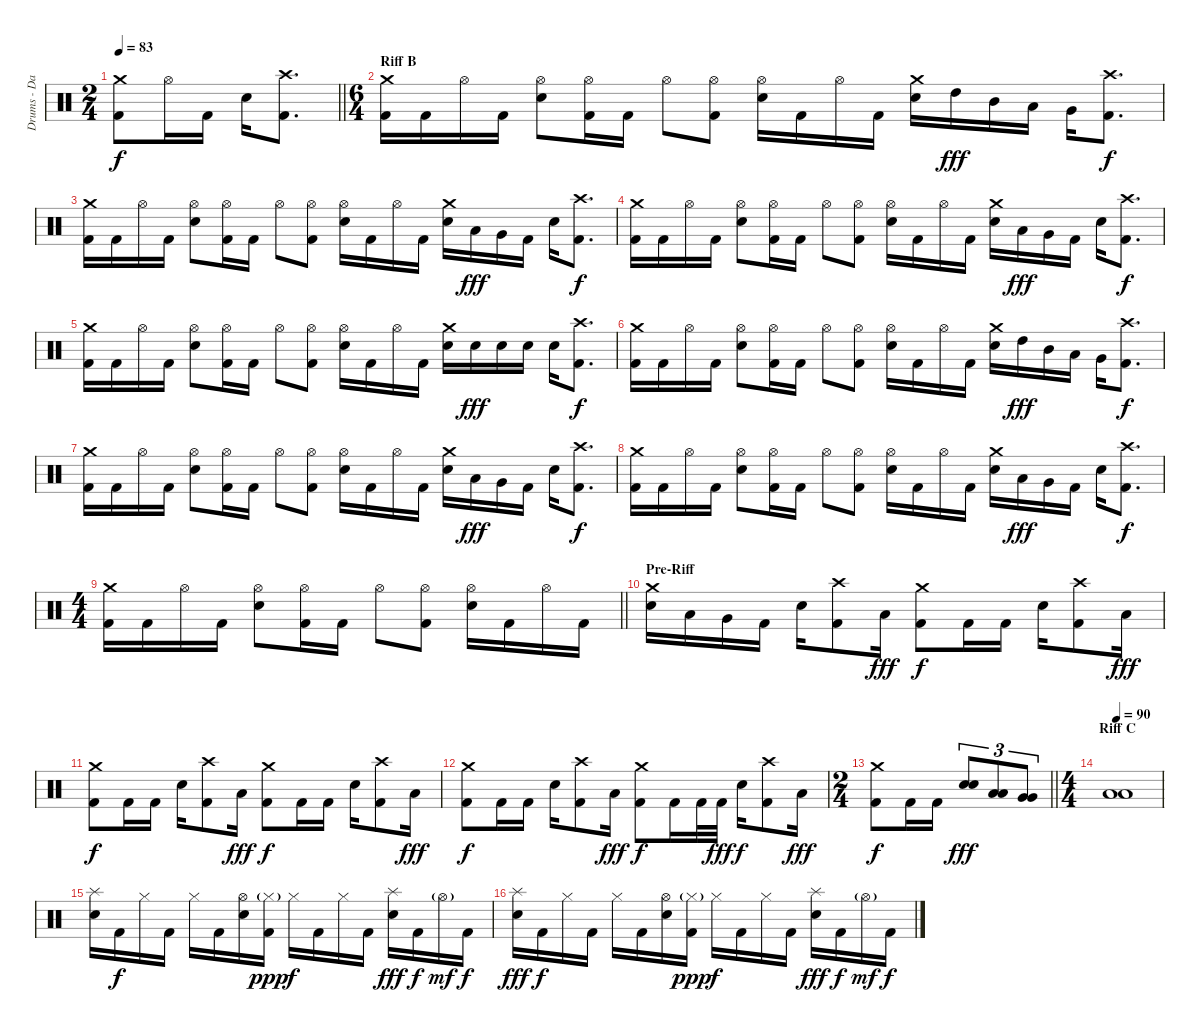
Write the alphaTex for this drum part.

\track ("Drums - Danny Carey" "Drums - Da") {instrument percussion}
\staff {score}
\articulation defaults
\ts (2 4)
\tempo 83
\clef neutral
\barLineRight lightlight
\ks c
("Crash medium (hit)" "Kick (hit) 2").8{dy f} "Hi-Hat (open)".16 "Kick (hit) 2".16 "Electric Snare (hit)".16 ("Crash high (hit)" "Kick (hit) 2").8{d} |
\ts (6 4)
\section ("" "Riff B")
("Crash medium (hit)" "Kick (hit) 2").16 "Kick (hit) 2".16 "Hi-Hat (open)".16 "Kick (hit) 2".16 ("Electric Snare (hit)" "Hi-Hat (open)").8 ("Kick (hit) 2" "Hi-Hat (open)").16 "Kick (hit) 2".16 "Hi-Hat (open)".8 ("Kick (hit) 2" "Hi-Hat (open)").8 ("Electric Snare (hit)" "Hi-Hat (open)").16 "Kick (hit) 2".16 "Hi-Hat (open)".16 "Kick (hit) 2".16 ("Crash medium (hit)" "Electric Snare (hit)").16 "High Tom (hit)".16{dy fff} "Mid Tom (hit)".16 "Low Tom (hit)".16 "Very Low Tom (hit)".16 ("Crash high (hit)" "Kick (hit) 2").8{d dy f} |
("Crash medium (hit)" "Kick (hit) 2").16 "Kick (hit) 2".16 "Hi-Hat (open)".16 "Kick (hit) 2".16 ("Electric Snare (hit)" "Hi-Hat (open)").8 ("Kick (hit) 2" "Hi-Hat (open)").16 "Kick (hit) 2".16 "Hi-Hat (open)".8 ("Kick (hit) 2" "Hi-Hat (open)").8 ("Electric Snare (hit)" "Hi-Hat (open)").16 "Kick (hit) 2".16 "Hi-Hat (open)".16 "Kick (hit) 2".16 ("Crash medium (hit)" "Electric Snare (hit)").16 "Low Tom (hit)".16{dy fff} "Very Low Tom (hit)".16 "Kick (hit) 2".16 "Electric Snare (hit)".16 ("Crash high (hit)" "Kick (hit) 2").8{d dy f} |
("Crash medium (hit)" "Kick (hit) 2").16 "Kick (hit) 2".16 "Hi-Hat (open)".16 "Kick (hit) 2".16 ("Electric Snare (hit)" "Hi-Hat (open)").8 ("Kick (hit) 2" "Hi-Hat (open)").16 "Kick (hit) 2".16 "Hi-Hat (open)".8 ("Kick (hit) 2" "Hi-Hat (open)").8 ("Electric Snare (hit)" "Hi-Hat (open)").16 "Kick (hit) 2".16 "Hi-Hat (open)".16 "Kick (hit) 2".16 ("Crash medium (hit)" "Electric Snare (hit)").16 "Low Tom (hit)".16{dy fff} "Very Low Tom (hit)".16 "Kick (hit) 2".16 "Electric Snare (hit)".16 ("Crash high (hit)" "Kick (hit) 2").8{d dy f} |
("Crash medium (hit)" "Kick (hit) 2").16 "Kick (hit) 2".16 "Hi-Hat (open)".16 "Kick (hit) 2".16 ("Electric Snare (hit)" "Hi-Hat (open)").8 ("Kick (hit) 2" "Hi-Hat (open)").16 "Kick (hit) 2".16 "Hi-Hat (open)".8 ("Kick (hit) 2" "Hi-Hat (open)").8 ("Electric Snare (hit)" "Hi-Hat (open)").16 "Kick (hit) 2".16 "Hi-Hat (open)".16 "Kick (hit) 2".16 ("Crash medium (hit)" "Electric Snare (hit)").16 "Electric Snare (hit)".16{dy fff} "Electric Snare (hit)".16 "Electric Snare (hit)".16 "Electric Snare (hit)".16 ("Crash high (hit)" "Kick (hit) 2").8{d dy f} |
("Crash medium (hit)" "Kick (hit) 2").16 "Kick (hit) 2".16 "Hi-Hat (open)".16 "Kick (hit) 2".16 ("Electric Snare (hit)" "Hi-Hat (open)").8 ("Kick (hit) 2" "Hi-Hat (open)").16 "Kick (hit) 2".16 "Hi-Hat (open)".8 ("Kick (hit) 2" "Hi-Hat (open)").8 ("Electric Snare (hit)" "Hi-Hat (open)").16 "Kick (hit) 2".16 "Hi-Hat (open)".16 "Kick (hit) 2".16 ("Crash medium (hit)" "Electric Snare (hit)").16 "High Tom (hit)".16{dy fff} "Mid Tom (hit)".16 "Low Tom (hit)".16 "Very Low Tom (hit)".16 ("Crash high (hit)" "Kick (hit) 2").8{d dy f} |
("Crash medium (hit)" "Kick (hit) 2").16 "Kick (hit) 2".16 "Hi-Hat (open)".16 "Kick (hit) 2".16 ("Electric Snare (hit)" "Hi-Hat (open)").8 ("Kick (hit) 2" "Hi-Hat (open)").16 "Kick (hit) 2".16 "Hi-Hat (open)".8 ("Kick (hit) 2" "Hi-Hat (open)").8 ("Electric Snare (hit)" "Hi-Hat (open)").16 "Kick (hit) 2".16 "Hi-Hat (open)".16 "Kick (hit) 2".16 ("Crash medium (hit)" "Electric Snare (hit)").16 "Low Tom (hit)".16{dy fff} "Very Low Tom (hit)".16 "Kick (hit) 2".16 "Electric Snare (hit)".16 ("Crash high (hit)" "Kick (hit) 2").8{d dy f} |
("Crash medium (hit)" "Kick (hit) 2").16 "Kick (hit) 2".16 "Hi-Hat (open)".16 "Kick (hit) 2".16 ("Electric Snare (hit)" "Hi-Hat (open)").8 ("Kick (hit) 2" "Hi-Hat (open)").16 "Kick (hit) 2".16 "Hi-Hat (open)".8 ("Kick (hit) 2" "Hi-Hat (open)").8 ("Electric Snare (hit)" "Hi-Hat (open)").16 "Kick (hit) 2".16 "Hi-Hat (open)".16 "Kick (hit) 2".16 ("Crash medium (hit)" "Electric Snare (hit)").16 "Low Tom (hit)".16{dy fff} "Very Low Tom (hit)".16 "Kick (hit) 2".16 "Electric Snare (hit)".16 ("Crash high (hit)" "Kick (hit) 2").8{d dy f} |
\ts (4 4)
\barLineRight lightlight
("Crash medium (hit)" "Kick (hit) 2").16 "Kick (hit) 2".16 "Hi-Hat (open)".16 "Kick (hit) 2".16 ("Electric Snare (hit)" "Hi-Hat (open)").8 ("Kick (hit) 2" "Hi-Hat (open)").16 "Kick (hit) 2".16 "Hi-Hat (open)".8 ("Kick (hit) 2" "Hi-Hat (open)").8 ("Electric Snare (hit)" "Hi-Hat (open)").16 "Kick (hit) 2".16 "Hi-Hat (open)".16 "Kick (hit) 2".16 |
\section ("" "Pre-Riff")
("Crash medium (hit)" "Electric Snare (hit)").16 "Low Tom (hit)".16 "Very Low Tom (hit)".16 "Kick (hit) 2".16 "Electric Snare (hit)".16 ("Crash high (hit)" "Kick (hit) 2").8 "Low Tom (hit)".16{dy fff} ("Crash medium (hit)" "Kick (hit) 2").8{dy f} "Kick (hit) 2".16 "Kick (hit) 2".16 "Electric Snare (hit)".16 ("Crash high (hit)" "Kick (hit) 2").8 "Low Tom (hit)".16{dy fff} |
("Crash medium (hit)" "Kick (hit) 2").8{dy f} "Kick (hit) 2".16 "Kick (hit) 2".16 "Electric Snare (hit)".16 ("Crash high (hit)" "Kick (hit) 2").8 "Low Tom (hit)".16{dy fff} ("Crash medium (hit)" "Kick (hit) 2").8{dy f} "Kick (hit) 2".16 "Kick (hit) 2".16 "Electric Snare (hit)".16 ("Crash high (hit)" "Kick (hit) 2").8 "Low Tom (hit)".16{dy fff} |
("Crash medium (hit)" "Kick (hit) 2").8{dy f} "Kick (hit) 2".16 "Kick (hit) 2".16 "Electric Snare (hit)".16 ("Crash high (hit)" "Kick (hit) 2").8 "Low Tom (hit)".16{dy fff} ("Crash medium (hit)" "Kick (hit) 2").8{dy f} "Kick (hit) 2".16 "Kick (hit) 2".32 "Kick (hit) 2".32{dy fff} "Electric Snare (hit)".16{dy f} ("Crash high (hit)" "Kick (hit) 2").8 "Low Tom (hit)".16{dy fff} |
\ts (2 4)
\barLineRight lightlight
("Crash medium (hit)" "Kick (hit) 2").8{dy f} "Kick (hit) 2".16 "Kick (hit) 2".16 ("Electric Snare (hit)" "Electric Snare (hit)").8{tu (3 2) bd 60 dy fff} ("Low Tom (hit)" "Low Tom (hit)").8{tu (3 2) bd 60} ("Very Low Tom (hit)" "Very Low Tom (hit)").8{tu (3 2) bd 60} |
\ts (4 4)
\section ("" "Riff C")
\tempo 90
("Low Floor Tom (hit)" "Low Floor Tom (hit)").1{bd 60} |
("Splash (hit)" "Electric Snare (hit)").16 "Kick (hit) 2".16{dy f} "Hi-Hat (closed)".16 "Kick (hit) 2".16 "Hi-Hat (closed)".16 "Kick (hit) 2".16 ("Electric Snare (hit)" "Hi-Hat (open)").16 ("Kick (hit) 2" "Hi-Hat (closed)"{g}).16{dy ppp} "Hi-Hat (closed)".16{dy f} "Kick (hit) 2".16 "Hi-Hat (closed)".16 "Kick (hit) 2".16 ("Splash (hit)" "Electric Snare (hit)").16{dy fff} "Kick (hit) 2".16{dy f} "Hi-Hat (open)"{g}.16{dy mf} "Kick (hit) 2".16{dy f} |
("Splash (hit)" "Electric Snare (hit)").16{dy fff} "Kick (hit) 2".16{dy f} "Hi-Hat (closed)".16 "Kick (hit) 2".16 "Hi-Hat (closed)".16 "Kick (hit) 2".16 ("Electric Snare (hit)" "Hi-Hat (open)").16 ("Kick (hit) 2" "Hi-Hat (closed)"{g}).16{dy ppp} "Hi-Hat (closed)".16{dy f} "Kick (hit) 2".16 "Hi-Hat (closed)".16 "Kick (hit) 2".16 ("Splash (hit)" "Electric Snare (hit)").16{dy fff} "Kick (hit) 2".16{dy f} "Hi-Hat (open)"{g}.16{dy mf} "Kick (hit) 2".16{dy f}
